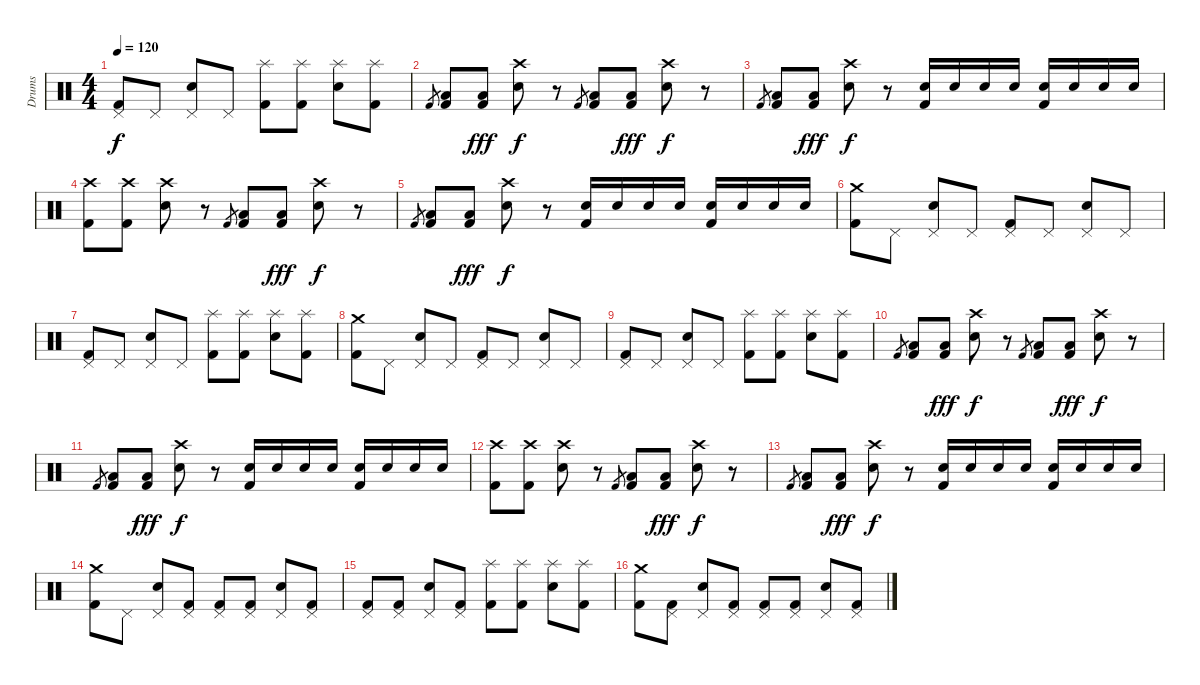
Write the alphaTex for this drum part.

\track ("Drums" "Drums") {instrument percussion}
\staff {score}
\articulation defaults
\ts (4 4)
\tempo 120
\clef neutral
\ks c
("Pedal Hi-Hat (hit)" "Kick (hit) 2").8{dy f} "Pedal Hi-Hat (hit)".8 ("Pedal Hi-Hat (hit)" "Electric Snare (hit)").8 "Pedal Hi-Hat (hit)".8 ("Splash (hit)" "Kick (hit) 2").8 ("Splash (hit)" "Kick (hit) 2").8 ("Splash (hit)" "Electric Snare (hit)").8 ("Splash (hit)" "Kick (hit) 2").8 |
"Kick (hit) 2".8{gr} ("Low Floor Tom (hit)" "Kick (hit) 2").8 ("Low Floor Tom (hit)" "Kick (hit) 2").8{dy fff} ("Crash high (hit)" "Electric Snare (hit)").8{dy f} r.8 "Kick (hit) 2".8{gr} ("Low Floor Tom (hit)" "Kick (hit) 2").8 ("Low Floor Tom (hit)" "Kick (hit) 2").8{dy fff} ("Crash high (hit)" "Electric Snare (hit)").8{dy f} r.8 |
"Kick (hit) 2".8{gr} ("Low Floor Tom (hit)" "Kick (hit) 2").8 ("Low Floor Tom (hit)" "Kick (hit) 2").8{dy fff} ("Crash high (hit)" "Electric Snare (hit)").8{dy f} r.8 ("Electric Snare (hit)" "Kick (hit) 2").16 "Electric Snare (hit)".16 "Electric Snare (hit)".16 "Electric Snare (hit)".16 ("Electric Snare (hit)" "Kick (hit) 2").16 "Electric Snare (hit)".16 "Electric Snare (hit)".16 "Electric Snare (hit)".16 |
("Crash high (hit)" "Kick (hit) 2").8 ("Crash high (hit)" "Kick (hit) 2").8 ("Crash high (hit)" "Electric Snare (hit)").8 r.8 "Kick (hit) 2".8{gr} ("Low Floor Tom (hit)" "Kick (hit) 2").8 ("Low Floor Tom (hit)" "Kick (hit) 2").8{dy fff} ("Crash high (hit)" "Electric Snare (hit)").8{dy f} r.8 |
"Kick (hit) 2".8{gr} ("Low Floor Tom (hit)" "Kick (hit) 2").8 ("Low Floor Tom (hit)" "Kick (hit) 2").8{dy fff} ("Crash high (hit)" "Electric Snare (hit)").8{dy f} r.8 ("Electric Snare (hit)" "Kick (hit) 2").16 "Electric Snare (hit)".16 "Electric Snare (hit)".16 "Electric Snare (hit)".16 ("Electric Snare (hit)" "Kick (hit) 2").16 "Electric Snare (hit)".16 "Electric Snare (hit)".16 "Electric Snare (hit)".16 |
("Crash medium (hit)" "Kick (hit) 2").8 "Pedal Hi-Hat (hit)".8 ("Pedal Hi-Hat (hit)" "Electric Snare (hit)").8 "Pedal Hi-Hat (hit)".8 ("Pedal Hi-Hat (hit)" "Kick (hit) 2").8 "Pedal Hi-Hat (hit)".8 ("Pedal Hi-Hat (hit)" "Electric Snare (hit)").8 "Pedal Hi-Hat (hit)".8 |
("Pedal Hi-Hat (hit)" "Kick (hit) 2").8 "Pedal Hi-Hat (hit)".8 ("Pedal Hi-Hat (hit)" "Electric Snare (hit)").8 "Pedal Hi-Hat (hit)".8 ("Splash (hit)" "Kick (hit) 2").8 ("Splash (hit)" "Kick (hit) 2").8 ("Splash (hit)" "Electric Snare (hit)").8 ("Splash (hit)" "Kick (hit) 2").8 |
("Crash medium (hit)" "Kick (hit) 2").8 "Pedal Hi-Hat (hit)".8 ("Pedal Hi-Hat (hit)" "Electric Snare (hit)").8 "Pedal Hi-Hat (hit)".8 ("Pedal Hi-Hat (hit)" "Kick (hit) 2").8 "Pedal Hi-Hat (hit)".8 ("Pedal Hi-Hat (hit)" "Electric Snare (hit)").8 "Pedal Hi-Hat (hit)".8 |
("Pedal Hi-Hat (hit)" "Kick (hit) 2").8 "Pedal Hi-Hat (hit)".8 ("Pedal Hi-Hat (hit)" "Electric Snare (hit)").8 "Pedal Hi-Hat (hit)".8 ("Splash (hit)" "Kick (hit) 2").8 ("Splash (hit)" "Kick (hit) 2").8 ("Splash (hit)" "Electric Snare (hit)").8 ("Splash (hit)" "Kick (hit) 2").8 |
"Kick (hit) 2".8{gr} ("Low Floor Tom (hit)" "Kick (hit) 2").8 ("Low Floor Tom (hit)" "Kick (hit) 2").8{dy fff} ("Crash high (hit)" "Electric Snare (hit)").8{dy f} r.8 "Kick (hit) 2".8{gr} ("Low Floor Tom (hit)" "Kick (hit) 2").8 ("Low Floor Tom (hit)" "Kick (hit) 2").8{dy fff} ("Crash high (hit)" "Electric Snare (hit)").8{dy f} r.8 |
"Kick (hit) 2".8{gr} ("Low Floor Tom (hit)" "Kick (hit) 2").8 ("Low Floor Tom (hit)" "Kick (hit) 2").8{dy fff} ("Crash high (hit)" "Electric Snare (hit)").8{dy f} r.8 ("Electric Snare (hit)" "Kick (hit) 2").16 "Electric Snare (hit)".16 "Electric Snare (hit)".16 "Electric Snare (hit)".16 ("Electric Snare (hit)" "Kick (hit) 2").16 "Electric Snare (hit)".16 "Electric Snare (hit)".16 "Electric Snare (hit)".16 |
("Crash high (hit)" "Kick (hit) 2").8 ("Crash high (hit)" "Kick (hit) 2").8 ("Crash high (hit)" "Electric Snare (hit)").8 r.8 "Kick (hit) 2".8{gr} ("Low Floor Tom (hit)" "Kick (hit) 2").8 ("Low Floor Tom (hit)" "Kick (hit) 2").8{dy fff} ("Crash high (hit)" "Electric Snare (hit)").8{dy f} r.8 |
"Kick (hit) 2".8{gr} ("Low Floor Tom (hit)" "Kick (hit) 2").8 ("Low Floor Tom (hit)" "Kick (hit) 2").8{dy fff} ("Crash high (hit)" "Electric Snare (hit)").8{dy f} r.8 ("Electric Snare (hit)" "Kick (hit) 2").16 "Electric Snare (hit)".16 "Electric Snare (hit)".16 "Electric Snare (hit)".16 ("Electric Snare (hit)" "Kick (hit) 2").16 "Electric Snare (hit)".16 "Electric Snare (hit)".16 "Electric Snare (hit)".16 |
("Crash medium (hit)" "Kick (hit) 2").8 "Pedal Hi-Hat (hit)".8 ("Pedal Hi-Hat (hit)" "Electric Snare (hit)").8 ("Pedal Hi-Hat (hit)" "Kick (hit) 2").8 ("Pedal Hi-Hat (hit)" "Kick (hit) 2").8 ("Pedal Hi-Hat (hit)" "Kick (hit) 2").8 ("Pedal Hi-Hat (hit)" "Electric Snare (hit)").8 ("Pedal Hi-Hat (hit)" "Kick (hit) 2").8 |
("Pedal Hi-Hat (hit)" "Kick (hit) 2").8 ("Pedal Hi-Hat (hit)" "Kick (hit) 2").8 ("Pedal Hi-Hat (hit)" "Electric Snare (hit)").8 ("Pedal Hi-Hat (hit)" "Kick (hit) 2").8 ("Splash (hit)" "Kick (hit) 2").8 ("Splash (hit)" "Kick (hit) 2").8 ("Splash (hit)" "Electric Snare (hit)").8 ("Splash (hit)" "Kick (hit) 2").8 |
("Crash medium (hit)" "Kick (hit) 2").8 ("Pedal Hi-Hat (hit)" "Kick (hit) 2").8 ("Pedal Hi-Hat (hit)" "Electric Snare (hit)").8 ("Pedal Hi-Hat (hit)" "Kick (hit) 2").8 ("Pedal Hi-Hat (hit)" "Kick (hit) 2").8 ("Pedal Hi-Hat (hit)" "Kick (hit) 2").8 ("Pedal Hi-Hat (hit)" "Electric Snare (hit)").8 ("Pedal Hi-Hat (hit)" "Kick (hit) 2").8
